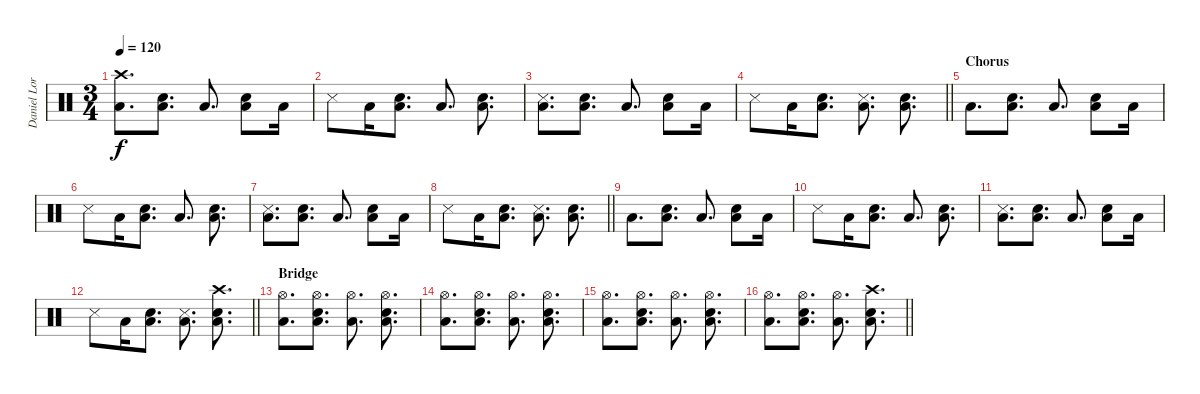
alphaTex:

\track ("Daniel Lorca " "Daniel Lor") {instrument percussion}
\staff {score}
\articulation defaults
\ts (3 4)
\tempo 120
\clef neutral
\ks c
("Low Floor Tom (hit)" "Crash high (hit)").8{d dy f} ("Low Floor Tom (hit)" "Electric Snare (hit)").8{d} "Low Floor Tom (hit)".8{d} ("Low Floor Tom (hit)" "Electric Snare (hit)").8 "Low Floor Tom (hit)".16 |
"Snare (side stick) 3".8 "Low Floor Tom (hit)".16 ("Low Floor Tom (hit)" "Electric Snare (hit)").8{d} "Low Floor Tom (hit)".8{d} ("Low Floor Tom (hit)" "Electric Snare (hit)").8{d} |
("Low Floor Tom (hit)" "Metronome (hit)").8{d} ("Low Floor Tom (hit)" "Electric Snare (hit)").8{d} "Low Floor Tom (hit)".8{d} ("Low Floor Tom (hit)" "Electric Snare (hit)").8 "Low Floor Tom (hit)".16 |
\barLineRight lightlight "Snare (side stick) 3".8 "Low Floor Tom (hit)".16
("Low Floor Tom (hit)" "Electric Snare (hit)").8{d} ("Low Floor Tom (hit)" "Metronome (hit)").8{d} ("Low Floor Tom (hit)" "Electric Snare (hit)").8{d} |
\section ("" "Chorus")
"Low Floor Tom (hit)".8{d} ("Low Floor Tom (hit)" "Electric Snare (hit)").8{d} "Low Floor Tom (hit)".8{d} ("Low Floor Tom (hit)" "Electric Snare (hit)").8 "Low Floor Tom (hit)".16 |
"Snare (side stick) 3".8 "Low Floor Tom (hit)".16 ("Low Floor Tom (hit)" "Electric Snare (hit)").8{d} "Low Floor Tom (hit)".8{d} ("Low Floor Tom (hit)" "Electric Snare (hit)").8{d} |
("Low Floor Tom (hit)" "Metronome (hit)").8{d} ("Low Floor Tom (hit)" "Electric Snare (hit)").8{d} "Low Floor Tom (hit)".8{d} ("Low Floor Tom (hit)" "Electric Snare (hit)").8 "Low Floor Tom (hit)".16 |
\barLineRight lightlight "Snare (side stick) 3".8 "Low Floor Tom (hit)".16
("Low Floor Tom (hit)" "Electric Snare (hit)").8{d} ("Low Floor Tom (hit)" "Metronome (hit)").8{d} ("Low Floor Tom (hit)" "Electric Snare (hit)").8{d} |
"Low Floor Tom (hit)".8{d} ("Low Floor Tom (hit)" "Electric Snare (hit)").8{d} "Low Floor Tom (hit)".8{d} ("Low Floor Tom (hit)" "Electric Snare (hit)").8 "Low Floor Tom (hit)".16 |
"Snare (side stick) 3".8 "Low Floor Tom (hit)".16 ("Low Floor Tom (hit)" "Electric Snare (hit)").8{d} "Low Floor Tom (hit)".8{d} ("Low Floor Tom (hit)" "Electric Snare (hit)").8{d} |
("Low Floor Tom (hit)" "Metronome (hit)").8{d} ("Low Floor Tom (hit)" "Electric Snare (hit)").8{d} "Low Floor Tom (hit)".8{d} ("Low Floor Tom (hit)" "Electric Snare (hit)").8 "Low Floor Tom (hit)".16 |
\barLineRight lightlight "Snare (side stick) 3".8 "Low Floor Tom (hit)".16
("Low Floor Tom (hit)" "Electric Snare (hit)").8{d} ("Low Floor Tom (hit)" "Metronome (hit)").8{d} ("Low Floor Tom (hit)" "Electric Snare (hit)" "Crash high (hit)").8{d} |
\section ("" "Bridge")
("Low Floor Tom (hit)" "Hi-Hat (open)").8{d} ("Low Floor Tom (hit)" "Electric Snare (hit)" "Hi-Hat (open)").8{d} ("Low Floor Tom (hit)" "Hi-Hat (open)").8{d} ("Low Floor Tom (hit)" "Electric Snare (hit)" "Hi-Hat (open)").8{d} |
("Low Floor Tom (hit)" "Hi-Hat (open)").8{d} ("Low Floor Tom (hit)" "Electric Snare (hit)" "Hi-Hat (open)").8{d} ("Low Floor Tom (hit)" "Hi-Hat (open)").8{d} ("Low Floor Tom (hit)" "Electric Snare (hit)" "Hi-Hat (open)").8{d} |
("Low Floor Tom (hit)" "Hi-Hat (open)").8{d} ("Low Floor Tom (hit)" "Electric Snare (hit)" "Hi-Hat (open)").8{d} ("Low Floor Tom (hit)" "Hi-Hat (open)").8{d} ("Low Floor Tom (hit)" "Electric Snare (hit)" "Hi-Hat (open)").8{d} |
\barLineRight lightlight
("Low Floor Tom (hit)" "Hi-Hat (open)").8{d} ("Low Floor Tom (hit)" "Electric Snare (hit)" "Hi-Hat (open)").8{d} ("Low Floor Tom (hit)" "Hi-Hat (open)").8{d} ("Low Floor Tom (hit)" "Electric Snare (hit)" "Crash high (hit)").8{d}
